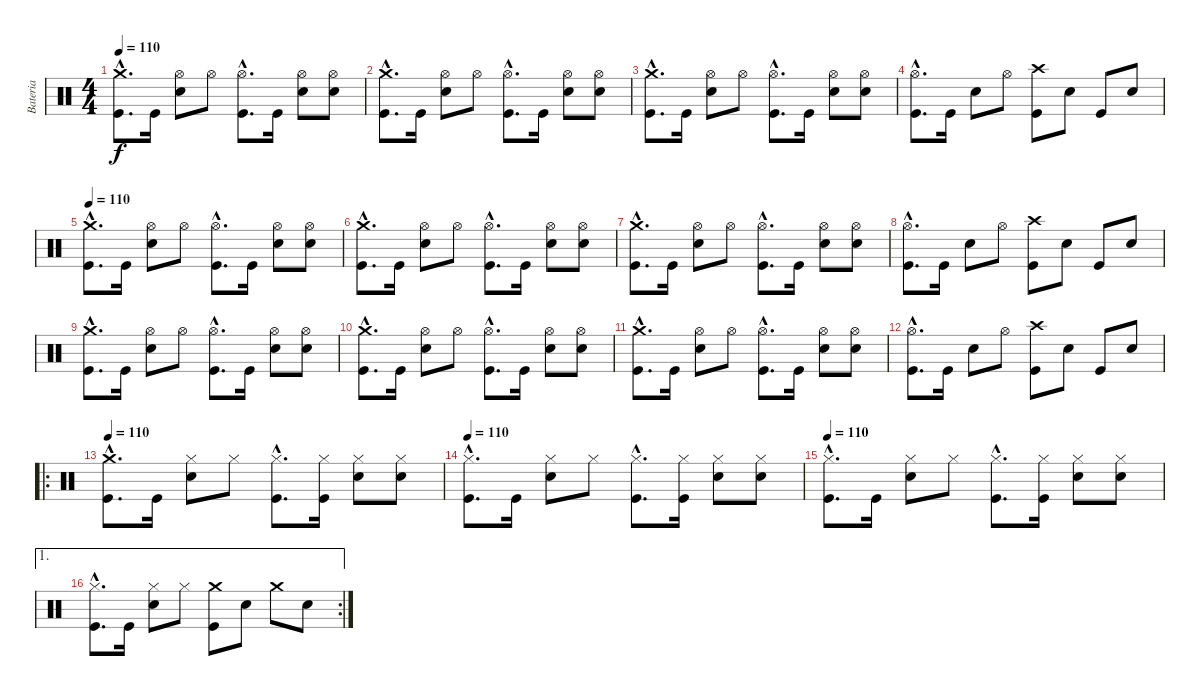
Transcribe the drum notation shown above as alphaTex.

\track ("Bateria" "Bateria") {instrument percussion}
\staff {score}
\articulation defaults
\ts (4 4)
\tempo 110
\clef neutral
\ks c
("Crash medium (hit)"{hac} "Kick (hit)"{hac}).8{d dy f} "Kick (hit)".16 ("Hi-Hat (open)" "Snare (hit) 2").8 "Hi-Hat (open)".8 ("Hi-Hat (open)"{hac} "Kick (hit)"{hac}).8{d} "Kick (hit)".16 ("Hi-Hat (open)" "Snare (hit) 2").8 ("Hi-Hat (open)" "Snare (hit) 2").8 |
("Crash medium (hit)"{hac} "Kick (hit)"{hac}).8{d} "Kick (hit)".16 ("Hi-Hat (open)" "Snare (hit) 2").8 "Hi-Hat (open)".8 ("Hi-Hat (open)"{hac} "Kick (hit)"{hac}).8{d} "Kick (hit)".16 ("Hi-Hat (open)" "Snare (hit) 2").8 ("Hi-Hat (open)" "Snare (hit) 2").8 |
("Crash medium (hit)"{hac} "Kick (hit)"{hac}).8{d} "Kick (hit)".16 ("Hi-Hat (open)" "Snare (hit) 2").8 "Hi-Hat (open)".8 ("Hi-Hat (open)"{hac} "Kick (hit)"{hac}).8{d} "Kick (hit)".16 ("Hi-Hat (open)" "Snare (hit) 2").8 ("Hi-Hat (open)" "Snare (hit) 2").8 |
("Hi-Hat (open)"{hac} "Kick (hit)"{hac}).8{d} "Kick (hit)".16 "Snare (hit) 2".8 "Hi-Hat (open)".8 ("Crash high (hit)" "Kick (hit)").8 "Snare (hit) 2".8 "Kick (hit)".8 "Snare (hit) 2".8 |
\tempo 110
("Crash medium (hit)"{hac} "Kick (hit)"{hac}).8{d} "Kick (hit)".16 ("Hi-Hat (open)" "Snare (hit) 2").8 "Hi-Hat (open)".8 ("Hi-Hat (open)"{hac} "Kick (hit)"{hac}).8{d} "Kick (hit)".16 ("Hi-Hat (open)" "Snare (hit) 2").8 ("Hi-Hat (open)" "Snare (hit) 2").8 |
("Crash medium (hit)"{hac} "Kick (hit)"{hac}).8{d} "Kick (hit)".16 ("Hi-Hat (open)" "Snare (hit) 2").8 "Hi-Hat (open)".8 ("Hi-Hat (open)"{hac} "Kick (hit)"{hac}).8{d} "Kick (hit)".16 ("Hi-Hat (open)" "Snare (hit) 2").8 ("Hi-Hat (open)" "Snare (hit) 2").8 |
("Crash medium (hit)"{hac} "Kick (hit)"{hac}).8{d} "Kick (hit)".16 ("Hi-Hat (open)" "Snare (hit) 2").8 "Hi-Hat (open)".8 ("Hi-Hat (open)"{hac} "Kick (hit)"{hac}).8{d} "Kick (hit)".16 ("Hi-Hat (open)" "Snare (hit) 2").8 ("Hi-Hat (open)" "Snare (hit) 2").8 |
("Hi-Hat (open)"{hac} "Kick (hit)"{hac}).8{d} "Kick (hit)".16 "Snare (hit) 2".8 "Hi-Hat (open)".8 ("Crash high (hit)" "Kick (hit)").8 "Snare (hit) 2".8 "Kick (hit)".8 "Snare (hit) 2".8 |
("Crash medium (hit)"{hac} "Kick (hit)"{hac}).8{d} "Kick (hit)".16 ("Hi-Hat (open)" "Snare (hit) 2").8 "Hi-Hat (open)".8 ("Hi-Hat (open)"{hac} "Kick (hit)"{hac}).8{d} "Kick (hit)".16 ("Hi-Hat (open)" "Snare (hit) 2").8 ("Hi-Hat (open)" "Snare (hit) 2").8 |
("Crash medium (hit)"{hac} "Kick (hit)"{hac}).8{d} "Kick (hit)".16 ("Hi-Hat (open)" "Snare (hit) 2").8 "Hi-Hat (open)".8 ("Hi-Hat (open)"{hac} "Kick (hit)"{hac}).8{d} "Kick (hit)".16 ("Hi-Hat (open)" "Snare (hit) 2").8 ("Hi-Hat (open)" "Snare (hit) 2").8 |
("Crash medium (hit)"{hac} "Kick (hit)"{hac}).8{d} "Kick (hit)".16 ("Hi-Hat (open)" "Snare (hit) 2").8 "Hi-Hat (open)".8 ("Hi-Hat (open)"{hac} "Kick (hit)"{hac}).8{d} "Kick (hit)".16 ("Hi-Hat (open)" "Snare (hit) 2").8 ("Hi-Hat (open)" "Snare (hit) 2").8 |
("Hi-Hat (open)"{hac} "Kick (hit)"{hac}).8{d} "Kick (hit)".16 "Snare (hit) 2".8 "Hi-Hat (open)".8 ("Crash high (hit)" "Kick (hit)").8 "Snare (hit) 2".8 "Kick (hit)".8 "Snare (hit) 2".8 |
\ro
\tempo 110
("Crash medium (hit)"{hac} "Kick (hit)"{hac}).8{d} "Kick (hit)".16 ("Hi-Hat (closed)" "Snare (hit) 2").8 "Hi-Hat (closed)".8 ("Hi-Hat (closed)"{hac} "Kick (hit)"{hac}).8{d} ("Hi-Hat (closed)" "Kick (hit)").16 ("Hi-Hat (closed)" "Snare (hit) 2").8 ("Hi-Hat (closed)" "Snare (hit) 2").8 |
\tempo 110
("Hi-Hat (closed)"{hac} "Kick (hit)"{hac}).8{d} "Kick (hit)".16 ("Hi-Hat (closed)" "Snare (hit) 2").8 "Hi-Hat (closed)".8 ("Hi-Hat (closed)"{hac} "Kick (hit)"{hac}).8{d} ("Hi-Hat (closed)" "Kick (hit)").16 ("Hi-Hat (closed)" "Snare (hit) 2").8 ("Hi-Hat (closed)" "Snare (hit) 2").8 |
\tempo 110
("Hi-Hat (closed)"{hac} "Kick (hit)"{hac}).8{d} "Kick (hit)".16 ("Hi-Hat (closed)" "Snare (hit) 2").8 "Hi-Hat (closed)".8 ("Hi-Hat (closed)"{hac} "Kick (hit)"{hac}).8{d} ("Hi-Hat (closed)" "Kick (hit)").16 ("Hi-Hat (closed)" "Snare (hit) 2").8 ("Hi-Hat (closed)" "Snare (hit) 2").8 |
\ae 1
\rc 2
("Hi-Hat (closed)"{hac} "Kick (hit)"{hac}).8{d} "Kick (hit)".16 ("Hi-Hat (closed)" "Snare (hit) 2").8 "Hi-Hat (closed)".8 ("Crash medium (hit)" "Kick (hit)").8 "Snare (hit) 2".8 "Crash medium (hit)".8 "Snare (hit) 2".8
